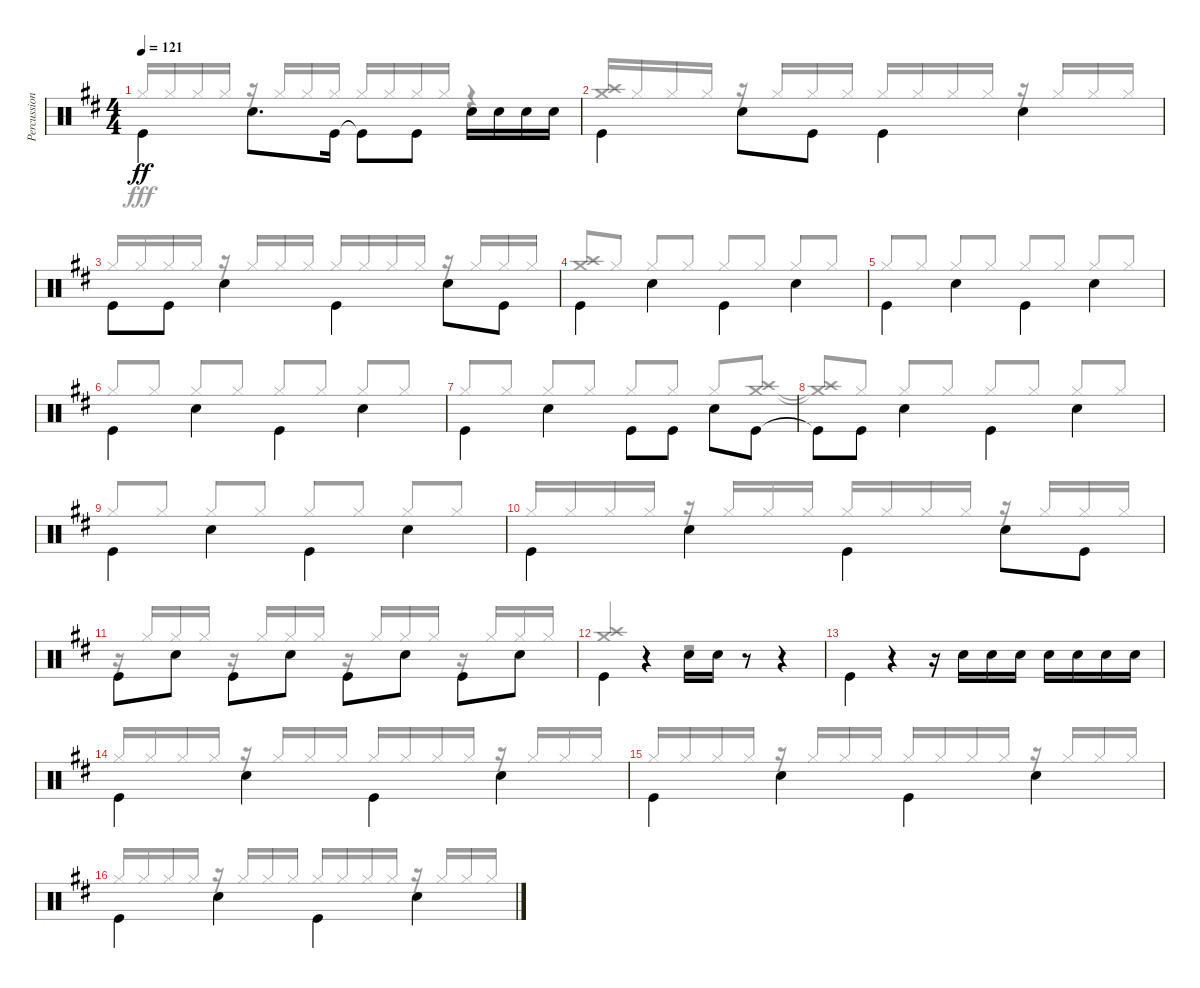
\track ("Percussions" "Percussion") {instrument percussion}
\staff {score}
\articulation defaults
\voice
\ts (4 4)
\tempo 121
\clef neutral
\ks d "Kick (hit)".4{dy ff beam Down} "Snare (hit) 2".8{d beam Down} "Kick (hit)".16{beam Down} "Kick (hit)"{t}.8{beam Down} "Kick (hit)".8{beam Down} "Snare (hit) 2".16{beam Down} "Snare (hit) 2".16{beam Down} "Snare (hit) 2".16{beam Down} "Snare (hit) 2".16{beam Down}
|
"Kick (hit)".4{beam Down} "Snare (hit) 2".8{beam Down} "Kick (hit)".8{beam Down} "Kick (hit)".4{beam Down} "Snare (hit) 2".4{beam Down} |
"Kick (hit)".8{beam Down} "Kick (hit)".8{beam Down} "Snare (hit) 2".4{beam Down} "Kick (hit)".4{beam Down} "Snare (hit) 2".8{beam Down} "Kick (hit)".8{beam Down} |
"Kick (hit)".4{beam Down} "Snare (hit) 2".4{beam Down} "Kick (hit)".4{beam Down} "Snare (hit) 2".4{beam Down} |
"Kick (hit)".4{beam Down} "Snare (hit) 2".4{beam Down} "Kick (hit)".4{beam Down} "Snare (hit) 2".4{beam Down} |
"Kick (hit)".4{beam Down} "Snare (hit) 2".4{beam Down} "Kick (hit)".4{beam Down} "Snare (hit) 2".4{beam Down} |
"Kick (hit)".4{beam Down} "Snare (hit) 2".4{beam Down} "Kick (hit)".8{beam Down} "Kick (hit)".8{beam Down} "Snare (hit) 2".8{beam Down} "Kick (hit)".8{beam Down} |
"Kick (hit)"{t}.8{beam Down} "Kick (hit)".8{beam Down} "Snare (hit) 2".4{beam Down} "Kick (hit)".4{beam Down} "Snare (hit) 2".4{beam Down} |
"Kick (hit)".4{beam Down} "Snare (hit) 2".4{beam Down} "Kick (hit)".4{beam Down} "Snare (hit) 2".4{beam Down} |
"Kick (hit)".4{beam Down} "Snare (hit) 2".4{beam Down} "Kick (hit)".4{beam Down} "Snare (hit) 2".8{beam Down} "Kick (hit)".8{beam Down} |
"Kick (hit)".8{beam Down} "Snare (hit) 2".8{beam Down} "Kick (hit)".8{beam Down} "Snare (hit) 2".8{beam Down} "Kick (hit)".8{beam Down} "Snare (hit) 2".8{beam Down} "Kick (hit)".8{beam Down} "Snare (hit) 2".8{beam Down} |
"Kick (hit)".4{beam Down} r.4{beam Down} "Snare (hit) 2".16{beam Down} "Snare (hit) 2".16{beam Down} r.8 r.4 |
"Kick (hit)".4{beam Down} r.4 r.16 "Snare (hit) 2".16 "Snare (hit) 2".16 "Snare (hit) 2".16 "Snare (hit) 2".16 "Snare (hit) 2".16 "Snare (hit) 2".16 "Snare (hit) 2".16 |
"Kick (hit)".4{beam Down} "Snare (hit) 2".4{beam Down} "Kick (hit)".4{beam Down} "Snare (hit) 2".4{beam Down} |
"Kick (hit)".4{beam Down} "Snare (hit) 2".4{beam Down} "Kick (hit)".4{beam Down} "Snare (hit) 2".4{beam Down} |
"Kick (hit)".4{beam Down} "Snare (hit) 2".4{beam Down} "Kick (hit)".4{beam Down} "Snare (hit) 2".4{beam Down}
\voice
\clef neutral
\ottava regular
\simile none
\ks d "Hi-Hat (closed)".16{dy fff beam Up} "Hi-Hat (closed)".16{beam Up} "Hi-Hat (closed)".16{beam Up} "Hi-Hat (closed)".16{beam Up}
r.16 "Hi-Hat (closed)".16{beam Up} "Hi-Hat (closed)".16{beam Up} "Hi-Hat (closed)".16{beam Up} "Hi-Hat (closed)".16{beam Up} "Hi-Hat (closed)".16{beam Up} "Hi-Hat (closed)".16{beam Up} "Hi-Hat (closed)".16{beam Up} r.4 |
("Crash medium (hit)" "Crash high (hit)").16{beam Up} "Hi-Hat (closed)".16{beam Up} "Hi-Hat (closed)".16{beam Up} "Hi-Hat (closed)".16{beam Up} r.16 "Hi-Hat (closed)".16{beam Up} "Hi-Hat (closed)".16{beam Up} "Hi-Hat (closed)".16{beam Up} "Hi-Hat (closed)".16{beam Up} "Hi-Hat (closed)".16{beam Up} "Hi-Hat (closed)".16{beam Up} "Hi-Hat (closed)".16{beam Up} r.16 "Hi-Hat (closed)".16{beam Up} "Hi-Hat (closed)".16{beam Up} "Hi-Hat (closed)".16{beam Up} |
"Hi-Hat (closed)".16{beam Up} "Hi-Hat (closed)".16{beam Up} "Hi-Hat (closed)".16{beam Up} "Hi-Hat (closed)".16{beam Up} r.16 "Hi-Hat (closed)".16{beam Up} "Hi-Hat (closed)".16{beam Up} "Hi-Hat (closed)".16{beam Up} "Hi-Hat (closed)".16{beam Up} "Hi-Hat (closed)".16{beam Up} "Hi-Hat (closed)".16{beam Up} "Hi-Hat (closed)".16{beam Up} r.16 "Hi-Hat (closed)".16{beam Up} "Hi-Hat (closed)".16{beam Up} "Hi-Hat (closed)".16{beam Up} |
("Crash medium (hit)" "Crash high (hit)").8{beam Up} "Hi-Hat (closed)".8{beam Up} "Hi-Hat (closed)".8{beam Up} "Hi-Hat (closed)".8{beam Up} "Hi-Hat (closed)".8{beam Up} "Hi-Hat (closed)".8{beam Up} "Hi-Hat (closed)".8{beam Up} "Hi-Hat (closed)".8{beam Up} |
"Hi-Hat (closed)".8{beam Up} "Hi-Hat (closed)".8 "Hi-Hat (closed)".8{beam Up} "Hi-Hat (closed)".8{beam Up} "Hi-Hat (closed)".8{beam Up} "Hi-Hat (closed)".8{beam Up} "Hi-Hat (closed)".8{beam Up} "Hi-Hat (closed)".8{beam Up} |
"Hi-Hat (closed)".8{beam Up} "Hi-Hat (closed)".8 "Hi-Hat (closed)".8{beam Up} "Hi-Hat (closed)".8{beam Up} "Hi-Hat (closed)".8{beam Up} "Hi-Hat (closed)".8{beam Up} "Hi-Hat (closed)".8{beam Up} "Hi-Hat (closed)".8{beam Up} |
"Hi-Hat (closed)".8{beam Up} "Hi-Hat (closed)".8 "Hi-Hat (closed)".8{beam Up} "Hi-Hat (closed)".8{beam Up} "Hi-Hat (closed)".8{beam Up} "Hi-Hat (closed)".8{beam Up} "Hi-Hat (closed)".8{beam Up} ("Crash medium (hit)" "Crash high (hit)").8 |
("Crash medium (hit)"{t} "Crash high (hit)"{t}).8{beam Up} "Hi-Hat (closed)".8{beam Up} "Hi-Hat (closed)".8{beam Up} "Hi-Hat (closed)".8{beam Up} "Hi-Hat (closed)".8{beam Up} "Hi-Hat (closed)".8{beam Up} "Hi-Hat (closed)".8{beam Up} "Hi-Hat (closed)".8{beam Up} |
"Hi-Hat (closed)".8{beam Up} "Hi-Hat (closed)".8{beam Up} "Hi-Hat (closed)".8{beam Up} "Hi-Hat (closed)".8{beam Up} "Hi-Hat (closed)".8{beam Up} "Hi-Hat (closed)".8{beam Up} "Hi-Hat (closed)".8{beam Up} "Hi-Hat (closed)".8{beam Up} |
"Hi-Hat (closed)".16{beam Up} "Hi-Hat (closed)".16{beam Up} "Hi-Hat (closed)".16{beam Up} "Hi-Hat (closed)".16{beam Up} r.16 "Hi-Hat (closed)".16{beam Up} "Hi-Hat (closed)".16{beam Up} "Hi-Hat (closed)".16{beam Up} "Hi-Hat (closed)".16{beam Up} "Hi-Hat (closed)".16{beam Up} "Hi-Hat (closed)".16{beam Up} "Hi-Hat (closed)".16{beam Up} r.16 "Hi-Hat (closed)".16{beam Up} "Hi-Hat (closed)".16{beam Up} "Hi-Hat (closed)".16{beam Up} |
r.16 "Hi-Hat (closed)".16{beam Up} "Hi-Hat (closed)".16{beam Up} "Hi-Hat (closed)".16{beam Up} r.16 "Hi-Hat (closed)".16{beam Up} "Hi-Hat (closed)".16{beam Up} "Hi-Hat (closed)".16{beam Up} r.16 "Hi-Hat (closed)".16{beam Up} "Hi-Hat (closed)".16{beam Up} "Hi-Hat (closed)".16{beam Up} r.16 "Hi-Hat (closed)".16{beam Up} "Hi-Hat (closed)".16{beam Up} "Hi-Hat (closed)".16{beam Up} |
("Crash medium (hit)" "Crash high (hit)").4{beam Up} r.4 r.2 |
|
"Hi-Hat (closed)".16{beam Up} "Hi-Hat (closed)".16{beam Up} "Hi-Hat (closed)".16{beam Up} "Hi-Hat (closed)".16{beam Up} r.16 "Hi-Hat (closed)".16{beam Up} "Hi-Hat (closed)".16{beam Up} "Hi-Hat (closed)".16{beam Up} "Hi-Hat (closed)".16{beam Up} "Hi-Hat (closed)".16{beam Up} "Hi-Hat (closed)".16{beam Up} "Hi-Hat (closed)".16{beam Up} r.16 "Hi-Hat (closed)".16{beam Up} "Hi-Hat (closed)".16{beam Up} "Hi-Hat (closed)".16{beam Up} |
"Hi-Hat (closed)".16{beam Up} "Hi-Hat (closed)".16{beam Up} "Hi-Hat (closed)".16{beam Up} "Hi-Hat (closed)".16{beam Up} r.16 "Hi-Hat (closed)".16{beam Up} "Hi-Hat (closed)".16{beam Up} "Hi-Hat (closed)".16{beam Up} "Hi-Hat (closed)".16{beam Up} "Hi-Hat (closed)".16{beam Up} "Hi-Hat (closed)".16{beam Up} "Hi-Hat (closed)".16{beam Up} r.16 "Hi-Hat (closed)".16{beam Up} "Hi-Hat (closed)".16{beam Up} "Hi-Hat (closed)".16{beam Up} |
"Hi-Hat (closed)".16{beam Up} "Hi-Hat (closed)".16{beam Up} "Hi-Hat (closed)".16{beam Up} "Hi-Hat (closed)".16{beam Up} r.16 "Hi-Hat (closed)".16{beam Up} "Hi-Hat (closed)".16{beam Up} "Hi-Hat (closed)".16{beam Up} "Hi-Hat (closed)".16{beam Up} "Hi-Hat (closed)".16{beam Up} "Hi-Hat (closed)".16{beam Up} "Hi-Hat (closed)".16{beam Up} r.16 "Hi-Hat (closed)".16{beam Up} "Hi-Hat (closed)".16{beam Up} "Hi-Hat (closed)".16{beam Up}
